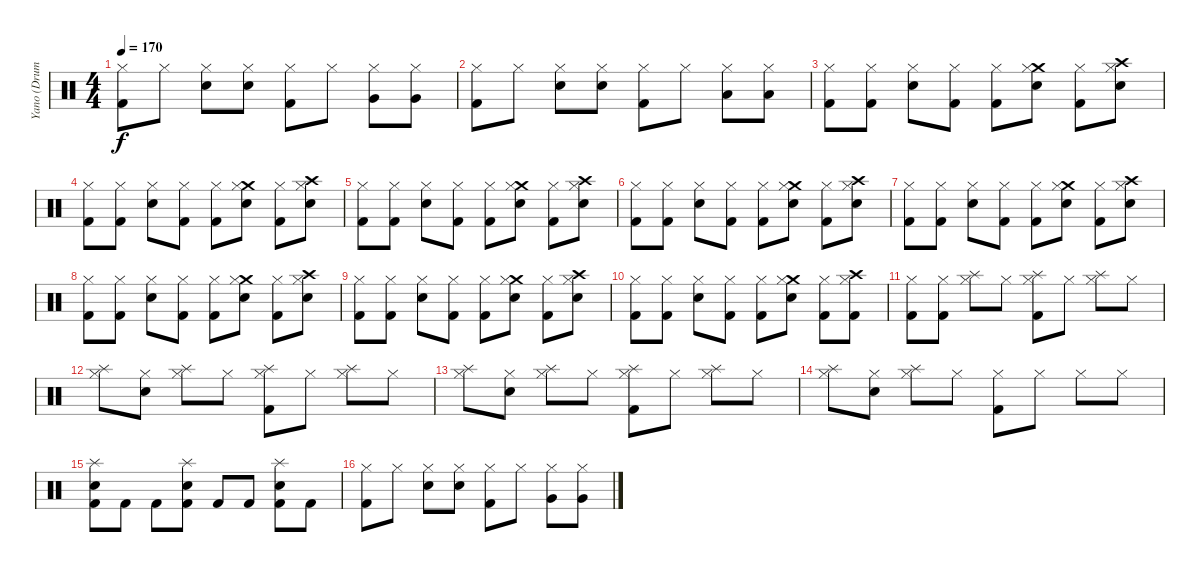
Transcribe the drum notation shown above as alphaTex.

\track ("Yano (Drums)" "Yano (Drum") {instrument percussion}
\staff {score}
\articulation defaults
\ts (4 4)
\tempo 170
\clef neutral
\ks c
("Hi-Hat (closed)" "Kick (hit) 2").8{dy f} "Hi-Hat (closed)".8 ("Hi-Hat (closed)" "Electric Snare (hit)").8 ("Hi-Hat (closed)" "Electric Snare (hit)").8 ("Hi-Hat (closed)" "Kick (hit) 2").8 "Hi-Hat (closed)".8 ("Hi-Hat (closed)" "Very Low Tom (hit)").8 ("Hi-Hat (closed)" "Very Low Tom (hit)").8 |
("Hi-Hat (closed)" "Kick (hit) 2").8 "Hi-Hat (closed)".8 ("Hi-Hat (closed)" "Electric Snare (hit)").8 ("Hi-Hat (closed)" "Electric Snare (hit)").8 ("Hi-Hat (closed)" "Kick (hit) 2").8 "Hi-Hat (closed)".8 ("Hi-Hat (closed)" "Low Tom (hit)").8 ("Hi-Hat (closed)" "Low Tom (hit)").8 |
("Hi-Hat (closed)" "Kick (hit) 2").8 ("Hi-Hat (closed)" "Kick (hit) 2").8 ("Hi-Hat (closed)" "Electric Snare (hit)").8 ("Hi-Hat (closed)" "Kick (hit) 2").8 ("Hi-Hat (closed)" "Kick (hit) 2").8 ("Crash medium (hit)" "Hi-Hat (closed)" "Electric Snare (hit)").8 ("Hi-Hat (closed)" "Kick (hit) 2").8 ("Crash high (hit)" "Hi-Hat (closed)" "Electric Snare (hit)").8 |
("Hi-Hat (closed)" "Kick (hit) 2").8 ("Hi-Hat (closed)" "Kick (hit) 2").8 ("Hi-Hat (closed)" "Electric Snare (hit)").8 ("Hi-Hat (closed)" "Kick (hit) 2").8 ("Hi-Hat (closed)" "Kick (hit) 2").8 ("Crash medium (hit)" "Hi-Hat (closed)" "Electric Snare (hit)").8 ("Hi-Hat (closed)" "Kick (hit) 2").8 ("Crash high (hit)" "Hi-Hat (closed)" "Electric Snare (hit)").8 |
("Hi-Hat (closed)" "Kick (hit) 2").8 ("Hi-Hat (closed)" "Kick (hit) 2").8 ("Hi-Hat (closed)" "Electric Snare (hit)").8 ("Hi-Hat (closed)" "Kick (hit) 2").8 ("Hi-Hat (closed)" "Kick (hit) 2").8 ("Crash medium (hit)" "Hi-Hat (closed)" "Electric Snare (hit)").8 ("Hi-Hat (closed)" "Kick (hit) 2").8 ("Crash high (hit)" "Hi-Hat (closed)" "Electric Snare (hit)").8 |
("Hi-Hat (closed)" "Kick (hit) 2").8 ("Hi-Hat (closed)" "Kick (hit) 2").8 ("Hi-Hat (closed)" "Electric Snare (hit)").8 ("Hi-Hat (closed)" "Kick (hit) 2").8 ("Hi-Hat (closed)" "Kick (hit) 2").8 ("Crash medium (hit)" "Hi-Hat (closed)" "Electric Snare (hit)").8 ("Hi-Hat (closed)" "Kick (hit) 2").8 ("Crash high (hit)" "Hi-Hat (closed)" "Electric Snare (hit)").8 |
("Hi-Hat (closed)" "Kick (hit) 2").8 ("Hi-Hat (closed)" "Kick (hit) 2").8 ("Hi-Hat (closed)" "Electric Snare (hit)").8 ("Hi-Hat (closed)" "Kick (hit) 2").8 ("Hi-Hat (closed)" "Kick (hit) 2").8 ("Crash medium (hit)" "Hi-Hat (closed)" "Electric Snare (hit)").8 ("Hi-Hat (closed)" "Kick (hit) 2").8 ("Crash high (hit)" "Hi-Hat (closed)" "Electric Snare (hit)").8 |
("Hi-Hat (closed)" "Kick (hit) 2").8 ("Hi-Hat (closed)" "Kick (hit) 2").8 ("Hi-Hat (closed)" "Electric Snare (hit)").8 ("Hi-Hat (closed)" "Kick (hit) 2").8 ("Hi-Hat (closed)" "Kick (hit) 2").8 ("Crash medium (hit)" "Hi-Hat (closed)" "Electric Snare (hit)").8 ("Hi-Hat (closed)" "Kick (hit) 2").8 ("Crash high (hit)" "Hi-Hat (closed)" "Electric Snare (hit)").8 |
("Hi-Hat (closed)" "Kick (hit) 2").8 ("Hi-Hat (closed)" "Kick (hit) 2").8 ("Hi-Hat (closed)" "Electric Snare (hit)").8 ("Hi-Hat (closed)" "Kick (hit) 2").8 ("Hi-Hat (closed)" "Kick (hit) 2").8 ("Crash medium (hit)" "Hi-Hat (closed)" "Electric Snare (hit)").8 ("Hi-Hat (closed)" "Kick (hit) 2").8 ("Crash high (hit)" "Hi-Hat (closed)" "Electric Snare (hit)").8 |
("Hi-Hat (closed)" "Kick (hit) 2").8 ("Hi-Hat (closed)" "Kick (hit) 2").8 ("Hi-Hat (closed)" "Electric Snare (hit)").8 ("Hi-Hat (closed)" "Kick (hit) 2").8 ("Hi-Hat (closed)" "Kick (hit) 2").8 ("Crash medium (hit)" "Hi-Hat (closed)" "Electric Snare (hit)").8 ("Hi-Hat (closed)" "Kick (hit) 2").8 ("Crash high (hit)" "Hi-Hat (closed)" "Kick (hit) 2").8 |
("Hi-Hat (closed)" "Kick (hit) 2").8 ("Hi-Hat (closed)" "Kick (hit) 2").8 ("Splash (hit)" "Hi-Hat (closed)").8 "Hi-Hat (closed)".8 ("Splash (hit)" "Hi-Hat (closed)" "Kick (hit) 2").8 "Hi-Hat (closed)".8 ("Splash (hit)" "Hi-Hat (closed)").8 "Hi-Hat (closed)".8 |
("Splash (hit)" "Hi-Hat (closed)").8 ("Hi-Hat (closed)" "Electric Snare (hit)").8 ("Splash (hit)" "Hi-Hat (closed)").8 "Hi-Hat (closed)".8 ("Splash (hit)" "Hi-Hat (closed)" "Kick (hit) 2").8 "Hi-Hat (closed)".8 ("Splash (hit)" "Hi-Hat (closed)").8 "Hi-Hat (closed)".8 |
("Splash (hit)" "Hi-Hat (closed)").8 ("Hi-Hat (closed)" "Electric Snare (hit)").8 ("Splash (hit)" "Hi-Hat (closed)").8 "Hi-Hat (closed)".8 ("Splash (hit)" "Hi-Hat (closed)" "Kick (hit) 2").8 "Hi-Hat (closed)".8 ("Splash (hit)" "Hi-Hat (closed)").8 "Hi-Hat (closed)".8 |
("Splash (hit)" "Hi-Hat (closed)").8 ("Hi-Hat (closed)" "Electric Snare (hit)").8 ("Splash (hit)" "Hi-Hat (closed)").8 "Hi-Hat (closed)".8 ("Hi-Hat (closed)" "Kick (hit) 2").8 "Hi-Hat (closed)".8 "Hi-Hat (closed)".8 "Hi-Hat (closed)".8 |
("Splash (hit)" "Electric Snare (hit)" "Kick (hit) 2").8 "Kick (hit) 2".8 "Kick (hit) 2".8 ("Splash (hit)" "Electric Snare (hit)" "Kick (hit) 2").8 "Kick (hit) 2".8 "Kick (hit) 2".8 ("Splash (hit)" "Electric Snare (hit)" "Kick (hit) 2").8 "Kick (hit) 2".8 |
("Hi-Hat (closed)" "Kick (hit) 2").8 "Hi-Hat (closed)".8 ("Hi-Hat (closed)" "Electric Snare (hit)").8 ("Hi-Hat (closed)" "Electric Snare (hit)").8 ("Hi-Hat (closed)" "Kick (hit) 2").8 "Hi-Hat (closed)".8 ("Hi-Hat (closed)" "Very Low Tom (hit)").8 ("Hi-Hat (closed)" "Very Low Tom (hit)").8
